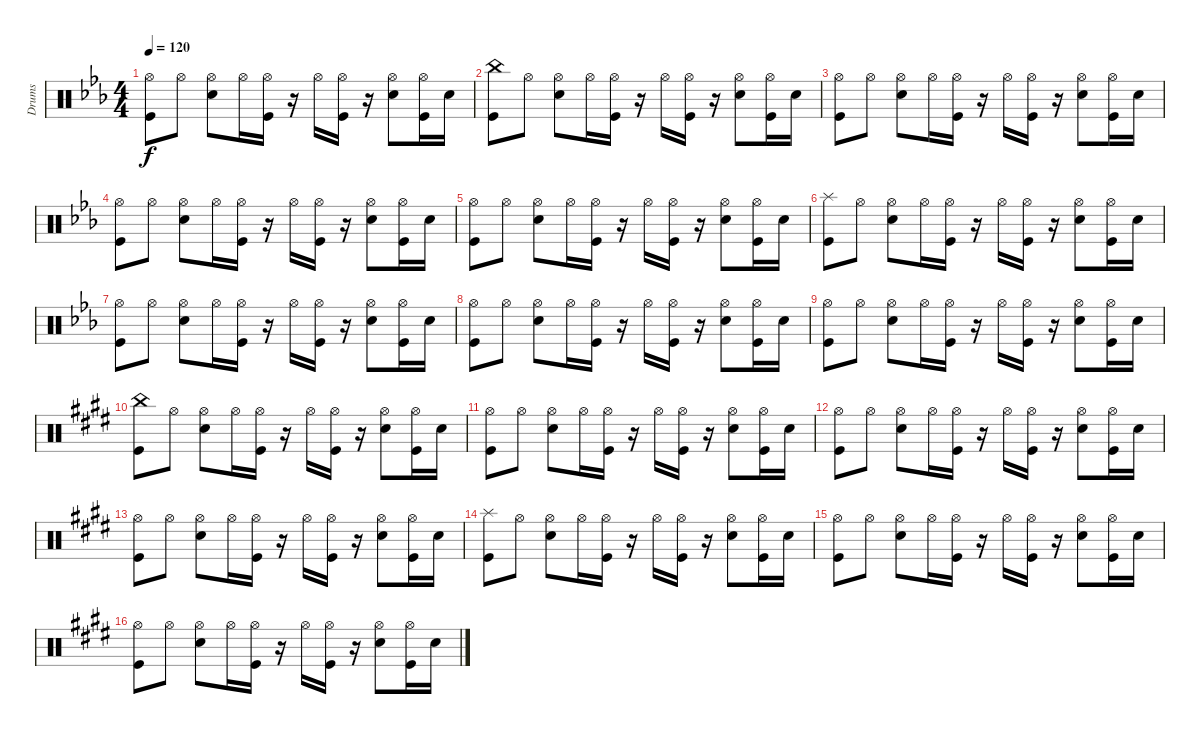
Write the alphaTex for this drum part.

\track ("Drums" "Drums") {instrument percussion}
\staff {score}
\articulation defaults
\ts (4 4)
\tempo 120
\clef neutral
\ks eb
("Hi-Hat (open)" "Kick (hit)").8{dy f} "Hi-Hat (open)".8 ("Hi-Hat (open)" "Snare (hit) 2").8 "Hi-Hat (open)".16 ("Hi-Hat (open)" "Kick (hit)").16 r.16 "Hi-Hat (open)".16 ("Hi-Hat (open)" "Kick (hit)").16 r.16 ("Hi-Hat (open)" "Snare (hit) 2").8 ("Hi-Hat (open)" "Kick (hit)").16 "Snare (hit) 2".16 |
("China (hit)" "Kick (hit)").8 "Hi-Hat (open)".8 ("Hi-Hat (open)" "Snare (hit) 2").8 "Hi-Hat (open)".16 ("Hi-Hat (open)" "Kick (hit)").16 r.16 "Hi-Hat (open)".16 ("Hi-Hat (open)" "Kick (hit)").16 r.16 ("Hi-Hat (open)" "Snare (hit) 2").8 ("Hi-Hat (open)" "Kick (hit)").16 "Snare (hit) 2".16 |
("Hi-Hat (open)" "Kick (hit)").8 "Hi-Hat (open)".8 ("Hi-Hat (open)" "Snare (hit) 2").8 "Hi-Hat (open)".16 ("Hi-Hat (open)" "Kick (hit)").16 r.16 "Hi-Hat (open)".16 ("Hi-Hat (open)" "Kick (hit)").16 r.16 ("Hi-Hat (open)" "Snare (hit) 2").8 ("Hi-Hat (open)" "Kick (hit)").16 "Snare (hit) 2".16 |
("Hi-Hat (open)" "Kick (hit)").8 "Hi-Hat (open)".8 ("Hi-Hat (open)" "Snare (hit) 2").8 "Hi-Hat (open)".16 ("Hi-Hat (open)" "Kick (hit)").16 r.16 "Hi-Hat (open)".16 ("Hi-Hat (open)" "Kick (hit)").16 r.16 ("Hi-Hat (open)" "Snare (hit) 2").8 ("Hi-Hat (open)" "Kick (hit)").16 "Snare (hit) 2".16 |
("Hi-Hat (open)" "Kick (hit)").8 "Hi-Hat (open)".8 ("Hi-Hat (open)" "Snare (hit) 2").8 "Hi-Hat (open)".16 ("Hi-Hat (open)" "Kick (hit)").16 r.16 "Hi-Hat (open)".16 ("Hi-Hat (open)" "Kick (hit)").16 r.16 ("Hi-Hat (open)" "Snare (hit) 2").8 ("Hi-Hat (open)" "Kick (hit)").16 "Snare (hit) 2".16 |
("Splash (hit)" "Kick (hit)").8 "Hi-Hat (open)".8 ("Hi-Hat (open)" "Snare (hit) 2").8 "Hi-Hat (open)".16 ("Hi-Hat (open)" "Kick (hit)").16 r.16 "Hi-Hat (open)".16 ("Hi-Hat (open)" "Kick (hit)").16 r.16 ("Hi-Hat (open)" "Snare (hit) 2").8 ("Hi-Hat (open)" "Kick (hit)").16 "Snare (hit) 2".16 |
("Hi-Hat (open)" "Kick (hit)").8 "Hi-Hat (open)".8 ("Hi-Hat (open)" "Snare (hit) 2").8 "Hi-Hat (open)".16 ("Hi-Hat (open)" "Kick (hit)").16 r.16 "Hi-Hat (open)".16 ("Hi-Hat (open)" "Kick (hit)").16 r.16 ("Hi-Hat (open)" "Snare (hit) 2").8 ("Hi-Hat (open)" "Kick (hit)").16 "Snare (hit) 2".16 |
("Hi-Hat (open)" "Kick (hit)").8 "Hi-Hat (open)".8 ("Hi-Hat (open)" "Snare (hit) 2").8 "Hi-Hat (open)".16 ("Hi-Hat (open)" "Kick (hit)").16 r.16 "Hi-Hat (open)".16 ("Hi-Hat (open)" "Kick (hit)").16 r.16 ("Hi-Hat (open)" "Snare (hit) 2").8 ("Hi-Hat (open)" "Kick (hit)").16 "Snare (hit) 2".16 |
("Hi-Hat (open)" "Kick (hit)").8 "Hi-Hat (open)".8 ("Hi-Hat (open)" "Snare (hit) 2").8 "Hi-Hat (open)".16 ("Hi-Hat (open)" "Kick (hit)").16 r.16 "Hi-Hat (open)".16 ("Hi-Hat (open)" "Kick (hit)").16 r.16 ("Hi-Hat (open)" "Snare (hit) 2").8 ("Hi-Hat (open)" "Kick (hit)").16 "Snare (hit) 2".16 |
\ks c#minor
("China (hit)" "Kick (hit)").8 "Hi-Hat (open)".8 ("Hi-Hat (open)" "Snare (hit) 2").8 "Hi-Hat (open)".16 ("Hi-Hat (open)" "Kick (hit)").16 r.16 "Hi-Hat (open)".16 ("Hi-Hat (open)" "Kick (hit)").16 r.16 ("Hi-Hat (open)" "Snare (hit) 2").8 ("Hi-Hat (open)" "Kick (hit)").16 "Snare (hit) 2".16 |
("Hi-Hat (open)" "Kick (hit)").8 "Hi-Hat (open)".8 ("Hi-Hat (open)" "Snare (hit) 2").8 "Hi-Hat (open)".16 ("Hi-Hat (open)" "Kick (hit)").16 r.16 "Hi-Hat (open)".16 ("Hi-Hat (open)" "Kick (hit)").16 r.16 ("Hi-Hat (open)" "Snare (hit) 2").8 ("Hi-Hat (open)" "Kick (hit)").16 "Snare (hit) 2".16 |
\ks e
("Hi-Hat (open)" "Kick (hit)").8 "Hi-Hat (open)".8 ("Hi-Hat (open)" "Snare (hit) 2").8 "Hi-Hat (open)".16 ("Hi-Hat (open)" "Kick (hit)").16 r.16 "Hi-Hat (open)".16 ("Hi-Hat (open)" "Kick (hit)").16 r.16 ("Hi-Hat (open)" "Snare (hit) 2").8 ("Hi-Hat (open)" "Kick (hit)").16 "Snare (hit) 2".16 |
\ks c#minor
("Hi-Hat (open)" "Kick (hit)").8 "Hi-Hat (open)".8 ("Hi-Hat (open)" "Snare (hit) 2").8 "Hi-Hat (open)".16 ("Hi-Hat (open)" "Kick (hit)").16 r.16 "Hi-Hat (open)".16 ("Hi-Hat (open)" "Kick (hit)").16 r.16 ("Hi-Hat (open)" "Snare (hit) 2").8 ("Hi-Hat (open)" "Kick (hit)").16 "Snare (hit) 2".16 |
("Splash (hit)" "Kick (hit)").8 "Hi-Hat (open)".8 ("Hi-Hat (open)" "Snare (hit) 2").8 "Hi-Hat (open)".16 ("Hi-Hat (open)" "Kick (hit)").16 r.16 "Hi-Hat (open)".16 ("Hi-Hat (open)" "Kick (hit)").16 r.16 ("Hi-Hat (open)" "Snare (hit) 2").8 ("Hi-Hat (open)" "Kick (hit)").16 "Snare (hit) 2".16 |
("Hi-Hat (open)" "Kick (hit)").8 "Hi-Hat (open)".8 ("Hi-Hat (open)" "Snare (hit) 2").8 "Hi-Hat (open)".16 ("Hi-Hat (open)" "Kick (hit)").16 r.16 "Hi-Hat (open)".16 ("Hi-Hat (open)" "Kick (hit)").16 r.16 ("Hi-Hat (open)" "Snare (hit) 2").8 ("Hi-Hat (open)" "Kick (hit)").16 "Snare (hit) 2".16 |
\ks e
("Hi-Hat (open)" "Kick (hit)").8 "Hi-Hat (open)".8 ("Hi-Hat (open)" "Snare (hit) 2").8 "Hi-Hat (open)".16 ("Hi-Hat (open)" "Kick (hit)").16 r.16 "Hi-Hat (open)".16 ("Hi-Hat (open)" "Kick (hit)").16 r.16 ("Hi-Hat (open)" "Snare (hit) 2").8 ("Hi-Hat (open)" "Kick (hit)").16 "Snare (hit) 2".16
